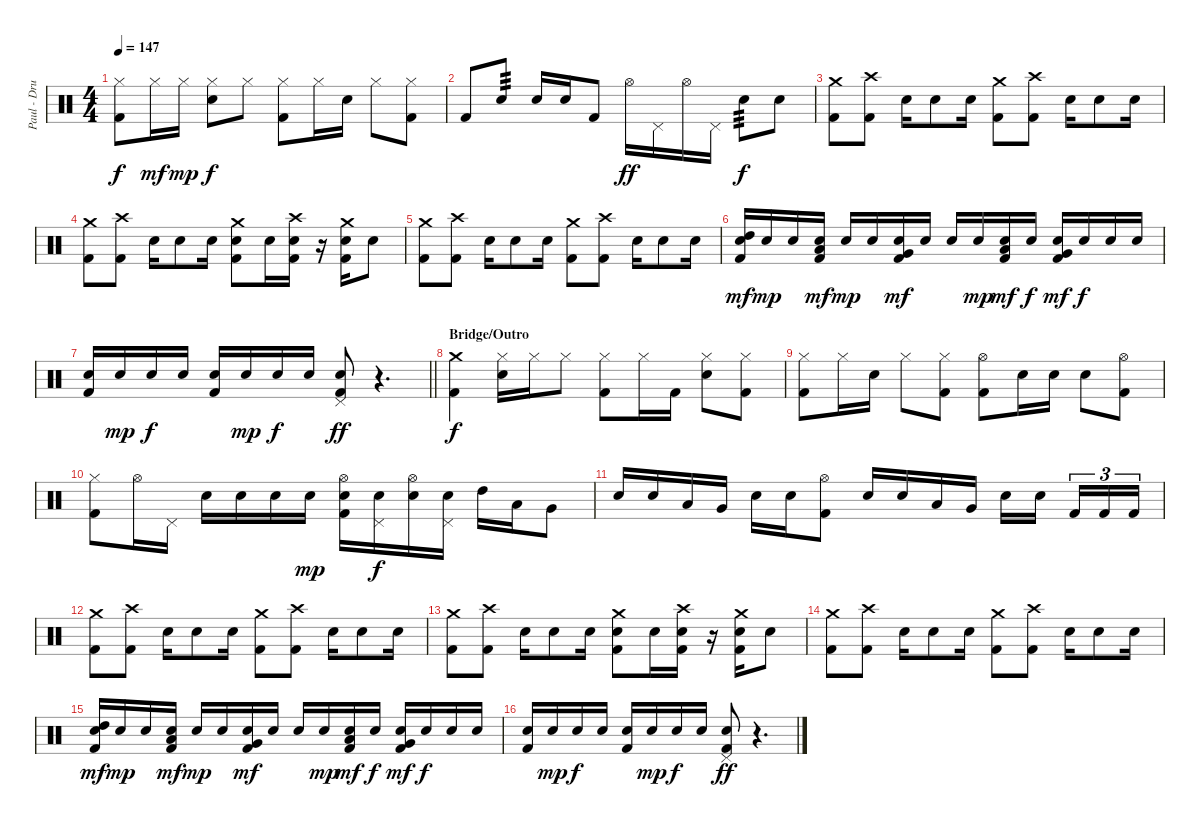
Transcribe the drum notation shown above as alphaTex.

\track ("Paul - Drums" "Paul - Dru") {instrument percussion}
\staff {score}
\articulation defaults
\ts (4 4)
\tempo 147
\clef neutral
\ks c
("Hi-Hat (closed)" "Kick (hit) 2").8{dy f} "Hi-Hat (closed)".16{dy mf} "Hi-Hat (closed)".16{dy mp} ("Hi-Hat (closed)" "Electric Snare (hit)").8{dy f} "Hi-Hat (closed)".8 ("Hi-Hat (closed)" "Kick (hit) 2").8 "Hi-Hat (closed)".16 "Electric Snare (hit)".16 "Hi-Hat (closed)".8 ("Hi-Hat (closed)" "Kick (hit) 2").8 |
"Kick (hit) 2".8 "Electric Snare (hit)".8{tp 3} "Electric Snare (hit)".16 "Electric Snare (hit)".16 "Kick (hit) 2".8 "Hi-Hat (open)".16{dy ff} "Pedal Hi-Hat (hit)".16 "Hi-Hat (open)".16 "Pedal Hi-Hat (hit)".16 "Electric Snare (hit)".8{tp 3 dy f} "Electric Snare (hit)".8 |
("Crash medium (hit)" "Kick (hit) 2").8 ("Crash high (hit)" "Kick (hit) 2").8 "Electric Snare (hit)".16 "Electric Snare (hit)".8 "Electric Snare (hit)".16 ("Crash medium (hit)" "Kick (hit) 2").8 ("Crash high (hit)" "Kick (hit) 2").8 "Electric Snare (hit)".16 "Electric Snare (hit)".8 "Electric Snare (hit)".16 |
("Crash medium (hit)" "Kick (hit) 2").8 ("Crash high (hit)" "Kick (hit) 2").8 "Electric Snare (hit)".16 "Electric Snare (hit)".8 "Electric Snare (hit)".16 ("Crash medium (hit)" "Electric Snare (hit)" "Kick (hit) 2").8 "Electric Snare (hit)".16 ("Crash high (hit)" "Electric Snare (hit)" "Kick (hit) 2").16 r.16 ("Crash medium (hit)" "Electric Snare (hit)" "Kick (hit) 2").16 "Electric Snare (hit)".8 |
("Crash medium (hit)" "Kick (hit) 2").8 ("Crash high (hit)" "Kick (hit) 2").8 "Electric Snare (hit)".16 "Electric Snare (hit)".8 "Electric Snare (hit)".16 ("Crash medium (hit)" "Kick (hit) 2").8 ("Crash high (hit)" "Kick (hit) 2").8 "Electric Snare (hit)".16 "Electric Snare (hit)".8 "Electric Snare (hit)".16 |
("High Tom (hit)" "Electric Snare (hit)" "Kick (hit) 2").16{dy mf} "Electric Snare (hit)".16{dy mp} "Electric Snare (hit)".16 ("Low Tom (hit)" "Electric Snare (hit)" "Kick (hit) 2").16{dy mf} "Electric Snare (hit)".16{dy mp} "Electric Snare (hit)".16 ("Very Low Tom (hit)" "Electric Snare (hit)" "Kick (hit) 2").16{dy mf} "Electric Snare (hit)".16 "Electric Snare (hit)".16 "Electric Snare (hit)".16{dy mp} ("Low Tom (hit)" "Electric Snare (hit)" "Kick (hit) 2").16{dy mf} "Electric Snare (hit)".16{dy f} ("Very Low Tom (hit)" "Electric Snare (hit)" "Kick (hit) 2").16{dy mf} "Electric Snare (hit)".16{dy f} "Electric Snare (hit)".16 "Electric Snare (hit)".16 |
\barLineRight lightlight
("Electric Snare (hit)" "Kick (hit) 2").16 "Electric Snare (hit)".16{dy mp} "Electric Snare (hit)".16{dy f} "Electric Snare (hit)".16 ("Electric Snare (hit)" "Kick (hit) 2").16 "Electric Snare (hit)".16{dy mp} "Electric Snare (hit)".16{dy f} "Electric Snare (hit)".16 ("Pedal Hi-Hat (hit)" "Electric Snare (hit)" "Kick (hit) 2").8{dy ff} r.4{d} |
\section ("" "Bridge/Outro")
("Crash medium (hit)" "Kick (hit) 2").4{dy f} ("Hi-Hat (closed)" "Electric Snare (hit)").16 "Hi-Hat (closed)".16 "Hi-Hat (closed)".8 ("Hi-Hat (closed)" "Kick (hit) 2").8 "Hi-Hat (closed)".16 "Kick (hit) 2".16 ("Hi-Hat (closed)" "Electric Snare (hit)").8 ("Hi-Hat (closed)" "Kick (hit) 2").8 |
("Hi-Hat (closed)" "Kick (hit) 2").8 "Hi-Hat (closed)".16 "Electric Snare (hit)".16 "Hi-Hat (closed)".8 ("Hi-Hat (closed)" "Kick (hit) 2").8 ("Hi-Hat (open)" "Kick (hit) 2").8 "Electric Snare (hit)".16 "Electric Snare (hit)".16 "Electric Snare (hit)".8 ("Hi-Hat (open)" "Kick (hit) 2").8 |
("Hi-Hat (closed)" "Kick (hit) 2").8 "Hi-Hat (open)".16 "Pedal Hi-Hat (hit)".16 "Electric Snare (hit)".16 "Electric Snare (hit)".16 "Electric Snare (hit)".16 "Electric Snare (hit)".16{dy mp} ("Hi-Hat (open)" "Electric Snare (hit)" "Kick (hit) 2").16 ("Pedal Hi-Hat (hit)" "Electric Snare (hit)").16{dy f} ("Hi-Hat (open)" "Electric Snare (hit)").16 ("Pedal Hi-Hat (hit)" "Electric Snare (hit)").16 "High Tom (hit)".16 "Low Tom (hit)".16 "Very Low Tom (hit)".8 |
"Electric Snare (hit)".16 "Electric Snare (hit)".16 "Low Tom (hit)".16 "Very Low Tom (hit)".16 "Electric Snare (hit)".16 "Electric Snare (hit)".16 ("Hi-Hat (open)" "Kick (hit) 2").8 "Electric Snare (hit)".16 "Electric Snare (hit)".16 "Low Tom (hit)".16 "Very Low Tom (hit)".16 "Electric Snare (hit)".16 "Electric Snare (hit)".16{beam splitsecondary} "Kick (hit) 2".16{tu (3 2)} "Kick (hit) 2".16{tu (3 2)} "Kick (hit) 2".16{tu (3 2)} |
("Crash medium (hit)" "Kick (hit) 2").8 ("Crash high (hit)" "Kick (hit) 2").8 "Electric Snare (hit)".16 "Electric Snare (hit)".8 "Electric Snare (hit)".16 ("Crash medium (hit)" "Kick (hit) 2").8 ("Crash high (hit)" "Kick (hit) 2").8 "Electric Snare (hit)".16 "Electric Snare (hit)".8 "Electric Snare (hit)".16 |
("Crash medium (hit)" "Kick (hit) 2").8 ("Crash high (hit)" "Kick (hit) 2").8 "Electric Snare (hit)".16 "Electric Snare (hit)".8 "Electric Snare (hit)".16 ("Crash medium (hit)" "Electric Snare (hit)" "Kick (hit) 2").8 "Electric Snare (hit)".16 ("Crash high (hit)" "Electric Snare (hit)" "Kick (hit) 2").16 r.16 ("Crash medium (hit)" "Electric Snare (hit)" "Kick (hit) 2").16 "Electric Snare (hit)".8 |
("Crash medium (hit)" "Kick (hit) 2").8 ("Crash high (hit)" "Kick (hit) 2").8 "Electric Snare (hit)".16 "Electric Snare (hit)".8 "Electric Snare (hit)".16 ("Crash medium (hit)" "Kick (hit) 2").8 ("Crash high (hit)" "Kick (hit) 2").8 "Electric Snare (hit)".16 "Electric Snare (hit)".8 "Electric Snare (hit)".16 |
("High Tom (hit)" "Electric Snare (hit)" "Kick (hit) 2").16{dy mf} "Electric Snare (hit)".16{dy mp} "Electric Snare (hit)".16 ("Low Tom (hit)" "Electric Snare (hit)" "Kick (hit) 2").16{dy mf} "Electric Snare (hit)".16{dy mp} "Electric Snare (hit)".16 ("Very Low Tom (hit)" "Electric Snare (hit)" "Kick (hit) 2").16{dy mf} "Electric Snare (hit)".16 "Electric Snare (hit)".16 "Electric Snare (hit)".16{dy mp} ("Low Tom (hit)" "Electric Snare (hit)" "Kick (hit) 2").16{dy mf} "Electric Snare (hit)".16{dy f} ("Very Low Tom (hit)" "Electric Snare (hit)" "Kick (hit) 2").16{dy mf} "Electric Snare (hit)".16{dy f} "Electric Snare (hit)".16 "Electric Snare (hit)".16 |
("Electric Snare (hit)" "Kick (hit) 2").16 "Electric Snare (hit)".16{dy mp} "Electric Snare (hit)".16{dy f} "Electric Snare (hit)".16 ("Electric Snare (hit)" "Kick (hit) 2").16 "Electric Snare (hit)".16{dy mp} "Electric Snare (hit)".16{dy f} "Electric Snare (hit)".16 ("Pedal Hi-Hat (hit)" "Electric Snare (hit)" "Kick (hit) 2").8{dy ff} r.4{d}
